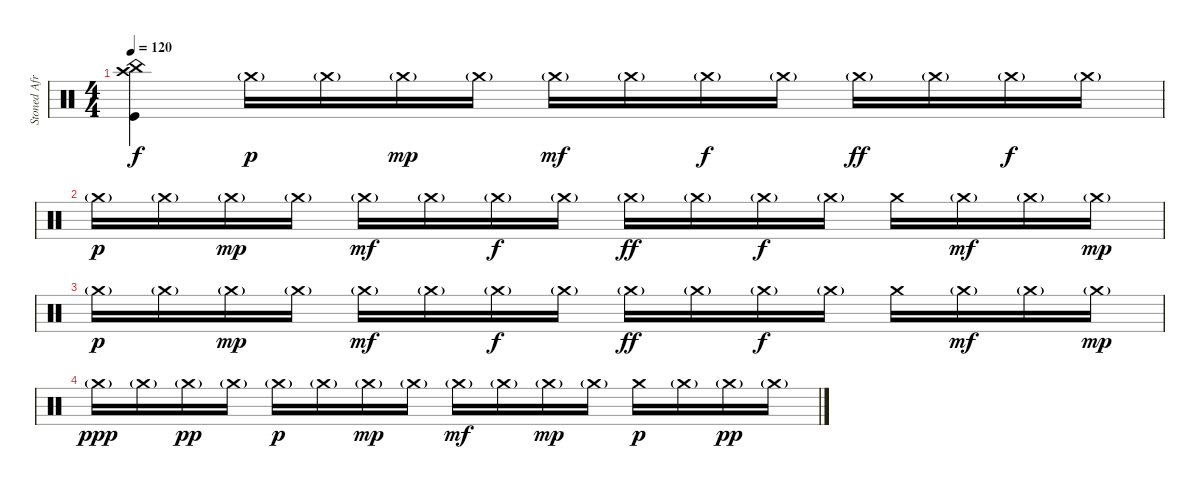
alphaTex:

\track ("Stoned Afro Drummer" "Stoned Afr") {instrument percussion}
\staff {score}
\articulation defaults
\ts (4 4)
\tempo 120
\clef neutral
\ks c
("China (hit)" "Crash high (hit)" "Kick (hit)").4{dy f} "Crash medium (hit)"{g}.16{dy p} "Crash medium (hit)"{g}.16 "Crash medium (hit)"{g}.16{dy mp} "Crash medium (hit)"{g}.16 "Crash medium (hit)"{g}.16{dy mf} "Crash medium (hit)"{g}.16 "Crash medium (hit)"{g}.16{dy f} "Crash medium (hit)"{g}.16 "Crash medium (hit)"{g}.16{dy ff} "Crash medium (hit)"{g}.16 "Crash medium (hit)"{g}.16{dy f} "Crash medium (hit)"{g}.16 |
"Crash medium (hit)"{g}.16{dy p} "Crash medium (hit)"{g}.16 "Crash medium (hit)"{g}.16{dy mp} "Crash medium (hit)"{g}.16 "Crash medium (hit)"{g}.16{dy mf} "Crash medium (hit)"{g}.16 "Crash medium (hit)"{g}.16{dy f} "Crash medium (hit)"{g}.16 "Crash medium (hit)"{g}.16{dy ff} "Crash medium (hit)"{g}.16 "Crash medium (hit)"{g}.16{dy f} "Crash medium (hit)"{g}.16 "Crash medium (hit)".16 "Crash medium (hit)"{g}.16{dy mf} "Crash medium (hit)"{g}.16 "Crash medium (hit)"{g}.16{dy mp} |
"Crash medium (hit)"{g}.16{dy p} "Crash medium (hit)"{g}.16 "Crash medium (hit)"{g}.16{dy mp} "Crash medium (hit)"{g}.16 "Crash medium (hit)"{g}.16{dy mf} "Crash medium (hit)"{g}.16 "Crash medium (hit)"{g}.16{dy f} "Crash medium (hit)"{g}.16 "Crash medium (hit)"{g}.16{dy ff} "Crash medium (hit)"{g}.16 "Crash medium (hit)"{g}.16{dy f} "Crash medium (hit)"{g}.16 "Crash medium (hit)".16 "Crash medium (hit)"{g}.16{dy mf} "Crash medium (hit)"{g}.16 "Crash medium (hit)"{g}.16{dy mp} |
"Crash medium (hit)"{g}.16{dy ppp} "Crash medium (hit)"{g}.16 "Crash medium (hit)"{g}.16{dy pp} "Crash medium (hit)"{g}.16 "Crash medium (hit)"{g}.16{dy p} "Crash medium (hit)"{g}.16 "Crash medium (hit)"{g}.16{dy mp} "Crash medium (hit)"{g}.16 "Crash medium (hit)"{g}.16{dy mf} "Crash medium (hit)"{g}.16 "Crash medium (hit)"{g}.16{dy mp} "Crash medium (hit)"{g}.16 "Crash medium (hit)".16{dy p} "Crash medium (hit)"{g}.16 "Crash medium (hit)"{g}.16{dy pp} "Crash medium (hit)"{g}.16
